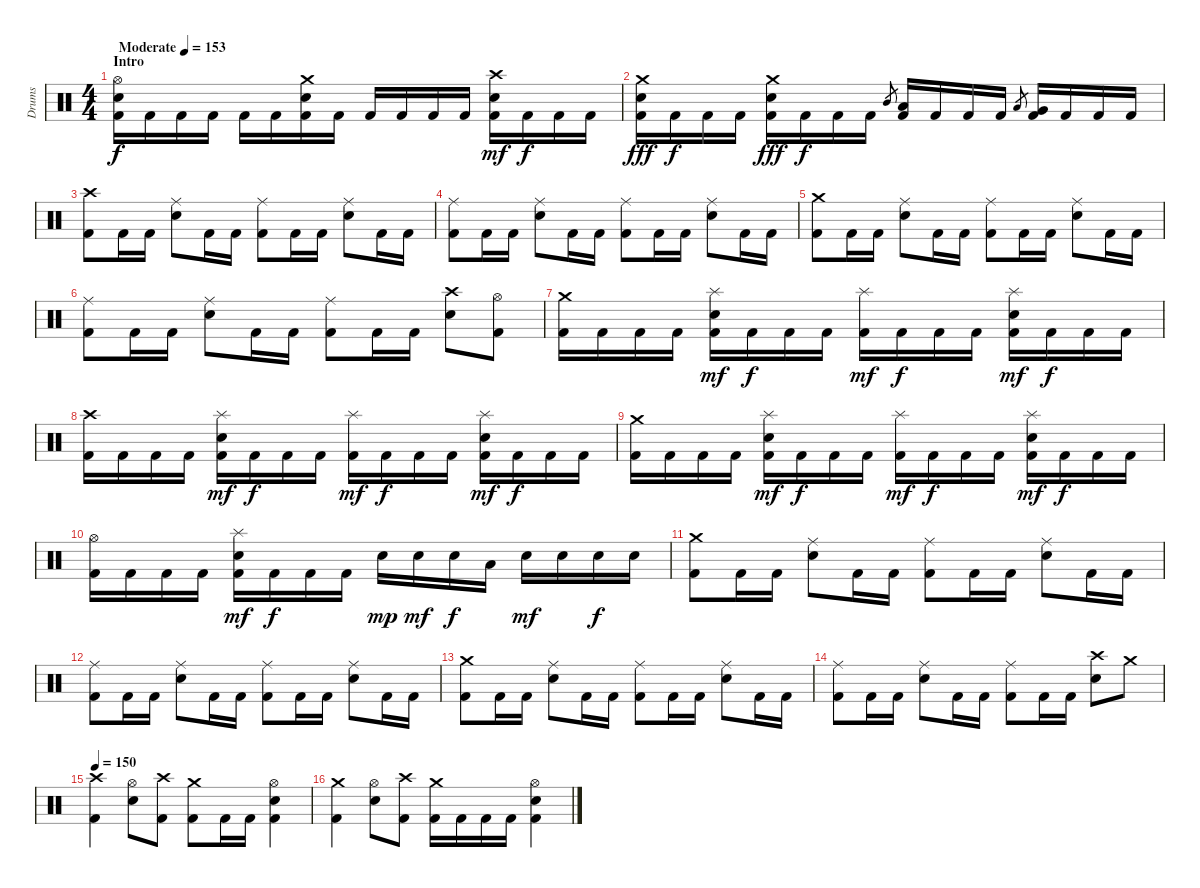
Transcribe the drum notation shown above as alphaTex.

\track ("Drums" "Drums") {instrument percussion}
\staff
\articulation defaults
\ts (4 4)
\section ("" "Intro")
\tempo (153 "Moderate")
\clef neutral
\ks c
("Kick (hit) 2" "Electric Snare (hit)" "Hi-Hat (open)").16{dy f} "Kick (hit) 2".16 "Kick (hit) 2".16 "Kick (hit) 2".16 "Kick (hit) 2".16 "Kick (hit) 2".16 ("Kick (hit) 2" "Electric Snare (hit)" "Crash medium (hit)").16 "Kick (hit) 2".16 "Kick (hit) 2".16 "Kick (hit) 2".16 "Kick (hit) 2".16 "Kick (hit) 2".16 ("Kick (hit) 2" "Electric Snare (hit)" "Crash high (hit)").16{dy mf} "Kick (hit) 2".16{dy f} "Kick (hit) 2".16 "Kick (hit) 2".16 |
("Kick (hit) 2" "Electric Snare (hit)" "Crash medium (hit)").16{dy fff} "Kick (hit) 2".16{dy f} "Kick (hit) 2".16 "Kick (hit) 2".16 ("Kick (hit) 2" "Electric Snare (hit)" "Crash medium (hit)").16{dy fff} "Kick (hit) 2".16{dy f} "Kick (hit) 2".16 "Kick (hit) 2".16 "Mid Tom (hit)".8{gr} ("Kick (hit) 2" "Low Tom (hit)").16 "Kick (hit) 2".16 "Kick (hit) 2".16 "Kick (hit) 2".16 "Low Tom (hit)".8{gr} ("Kick (hit) 2" "Very Low Tom (hit)").16 "Kick (hit) 2".16 "Kick (hit) 2".16 "Kick (hit) 2".16 |
("Kick (hit) 2" "Crash high (hit)").8 "Kick (hit) 2".16 "Kick (hit) 2".16 ("Electric Snare (hit)" "Ride (middle)").8 "Kick (hit) 2".16 "Kick (hit) 2".16 ("Kick (hit) 2" "Ride (middle)").8 "Kick (hit) 2".16 "Kick (hit) 2".16 ("Electric Snare (hit)" "Ride (middle)").8 "Kick (hit) 2".16 "Kick (hit) 2".16 |
("Kick (hit) 2" "Ride (middle)").8 "Kick (hit) 2".16 "Kick (hit) 2".16 ("Electric Snare (hit)" "Ride (middle)").8 "Kick (hit) 2".16 "Kick (hit) 2".16 ("Kick (hit) 2" "Ride (middle)").8 "Kick (hit) 2".16 "Kick (hit) 2".16 ("Electric Snare (hit)" "Ride (middle)").8 "Kick (hit) 2".16 "Kick (hit) 2".16 |
("Kick (hit) 2" "Crash medium (hit)").8 "Kick (hit) 2".16 "Kick (hit) 2".16 ("Electric Snare (hit)" "Ride (middle)").8 "Kick (hit) 2".16 "Kick (hit) 2".16 ("Kick (hit) 2" "Ride (middle)").8 "Kick (hit) 2".16 "Kick (hit) 2".16 ("Electric Snare (hit)" "Ride (middle)").8 "Kick (hit) 2".16 "Kick (hit) 2".16 |
("Kick (hit) 2" "Ride (middle)").8 "Kick (hit) 2".16 "Kick (hit) 2".16 ("Electric Snare (hit)" "Ride (middle)").8 "Kick (hit) 2".16 "Kick (hit) 2".16 ("Kick (hit) 2" "Ride (middle)").8 "Kick (hit) 2".16 "Kick (hit) 2".16 ("Electric Snare (hit)" "Crash high (hit)").8 ("Kick (hit) 2" "Hi-Hat (open)").8 |
("Kick (hit) 2" "Crash medium (hit)").16 "Kick (hit) 2".16 "Kick (hit) 2".16 "Kick (hit) 2".16 ("Kick (hit) 2" "Electric Snare (hit)" "Splash (hit)").16{dy mf} "Kick (hit) 2".16{dy f} "Kick (hit) 2".16 "Kick (hit) 2".16 ("Kick (hit) 2" "Splash (hit)").16{dy mf} "Kick (hit) 2".16{dy f} "Kick (hit) 2".16 "Kick (hit) 2".16 ("Kick (hit) 2" "Electric Snare (hit)" "Splash (hit)").16{dy mf} "Kick (hit) 2".16{dy f} "Kick (hit) 2".16 "Kick (hit) 2".16 |
("Kick (hit) 2" "Crash high (hit)").16 "Kick (hit) 2".16 "Kick (hit) 2".16 "Kick (hit) 2".16 ("Kick (hit) 2" "Electric Snare (hit)" "Splash (hit)").16{dy mf} "Kick (hit) 2".16{dy f} "Kick (hit) 2".16 "Kick (hit) 2".16 ("Kick (hit) 2" "Splash (hit)").16{dy mf} "Kick (hit) 2".16{dy f} "Kick (hit) 2".16 "Kick (hit) 2".16 ("Kick (hit) 2" "Electric Snare (hit)" "Splash (hit)").16{dy mf} "Kick (hit) 2".16{dy f} "Kick (hit) 2".16 "Kick (hit) 2".16 |
("Kick (hit) 2" "Crash medium (hit)").16 "Kick (hit) 2".16 "Kick (hit) 2".16 "Kick (hit) 2".16 ("Kick (hit) 2" "Electric Snare (hit)" "Splash (hit)").16{dy mf} "Kick (hit) 2".16{dy f} "Kick (hit) 2".16 "Kick (hit) 2".16 ("Kick (hit) 2" "Splash (hit)").16{dy mf} "Kick (hit) 2".16{dy f} "Kick (hit) 2".16 "Kick (hit) 2".16 ("Kick (hit) 2" "Electric Snare (hit)" "Splash (hit)").16{dy mf} "Kick (hit) 2".16{dy f} "Kick (hit) 2".16 "Kick (hit) 2".16 |
("Kick (hit) 2" "Hi-Hat (open)").16 "Kick (hit) 2".16 "Kick (hit) 2".16 "Kick (hit) 2".16 ("Kick (hit) 2" "Electric Snare (hit)" "Splash (hit)").16{dy mf} "Kick (hit) 2".16{dy f} "Kick (hit) 2".16 "Kick (hit) 2".16 "Electric Snare (hit)".16{dy mp} "Electric Snare (hit)".16{dy mf} "Electric Snare (hit)".16{dy f} "Low Tom (hit)".16 "Electric Snare (hit)".16{dy mf} "Electric Snare (hit)".16 "Electric Snare (hit)".16{dy f} "Electric Snare (hit)".16 |
("Kick (hit) 2" "Crash medium (hit)").8 "Kick (hit) 2".16 "Kick (hit) 2".16 ("Electric Snare (hit)" "Ride (middle)").8 "Kick (hit) 2".16 "Kick (hit) 2".16 ("Kick (hit) 2" "Ride (middle)").8 "Kick (hit) 2".16 "Kick (hit) 2".16 ("Electric Snare (hit)" "Ride (middle)").8 "Kick (hit) 2".16 "Kick (hit) 2".16 |
("Kick (hit) 2" "Ride (middle)").8 "Kick (hit) 2".16 "Kick (hit) 2".16 ("Electric Snare (hit)" "Ride (middle)").8 "Kick (hit) 2".16 "Kick (hit) 2".16 ("Kick (hit) 2" "Ride (middle)").8 "Kick (hit) 2".16 "Kick (hit) 2".16 ("Electric Snare (hit)" "Ride (middle)").8 "Kick (hit) 2".16 "Kick (hit) 2".16 |
("Kick (hit) 2" "Crash medium (hit)").8 "Kick (hit) 2".16 "Kick (hit) 2".16 ("Electric Snare (hit)" "Ride (middle)").8 "Kick (hit) 2".16 "Kick (hit) 2".16 ("Kick (hit) 2" "Ride (middle)").8 "Kick (hit) 2".16 "Kick (hit) 2".16 ("Electric Snare (hit)" "Ride (middle)").8 "Kick (hit) 2".16 "Kick (hit) 2".16 |
("Kick (hit) 2" "Ride (middle)").8 "Kick (hit) 2".16 "Kick (hit) 2".16 ("Electric Snare (hit)" "Ride (middle)").8 "Kick (hit) 2".16 "Kick (hit) 2".16 ("Kick (hit) 2" "Ride (middle)").8 "Kick (hit) 2".16 "Kick (hit) 2".16 ("Electric Snare (hit)" "Crash high (hit)").8 "Crash medium (hit)".8 |
\tempo 150
("Kick (hit) 2" "Crash high (hit)").4 ("Electric Snare (hit)" "Hi-Hat (open)").8 ("Kick (hit) 2" "Crash high (hit)").8 ("Kick (hit) 2" "Crash medium (hit)").8 "Kick (hit) 2".16 "Kick (hit) 2".16 ("Kick (hit) 2" "Electric Snare (hit)" "Hi-Hat (open)").4 |
("Kick (hit) 2" "Crash medium (hit)").4 ("Electric Snare (hit)" "Hi-Hat (open)").8 ("Kick (hit) 2" "Crash high (hit)").8 ("Kick (hit) 2" "Crash medium (hit)").16 "Kick (hit) 2".16 "Kick (hit) 2".16 "Kick (hit) 2".16 ("Kick (hit) 2" "Electric Snare (hit)" "Hi-Hat (open)").4
